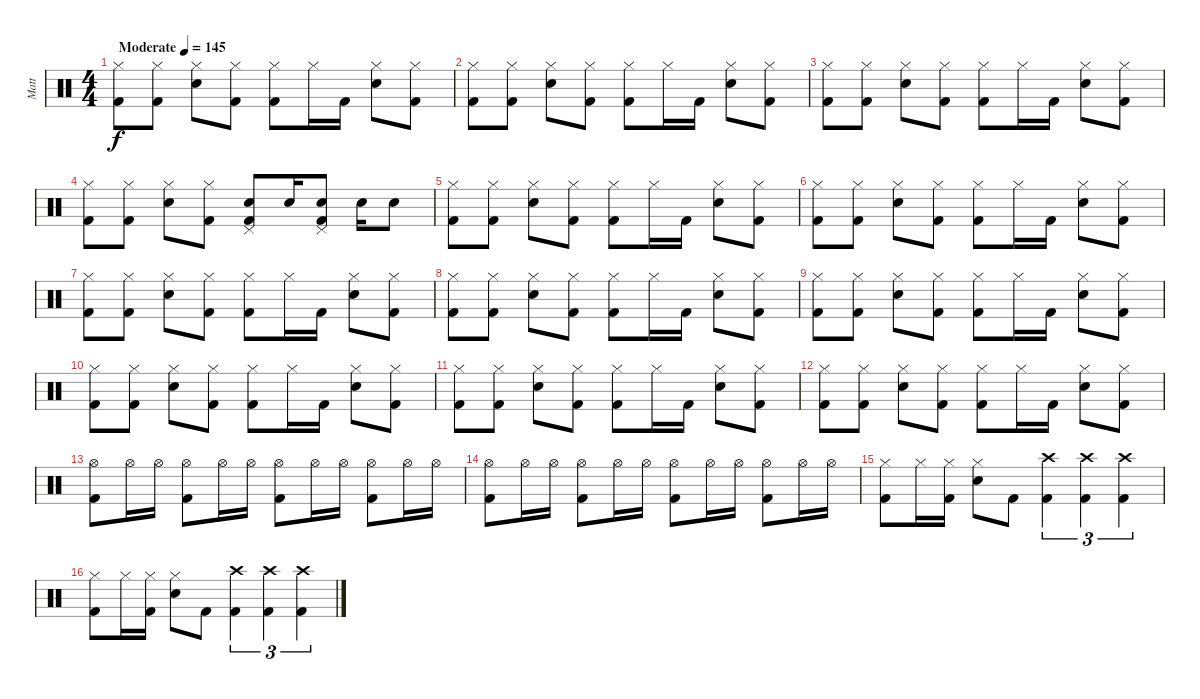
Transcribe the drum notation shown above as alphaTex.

\track ("Matt" "Matt") {instrument percussion}
\staff {score}
\articulation defaults
\ts (4 4)
\tempo (145 "Moderate")
\clef neutral
\ks c
("Hi-Hat (closed)" "Kick (hit) 2").8{dy f} ("Hi-Hat (closed)" "Kick (hit) 2").8 ("Hi-Hat (closed)" "Snare (hit) 2").8 ("Hi-Hat (closed)" "Kick (hit) 2").8 ("Hi-Hat (closed)" "Kick (hit) 2").8 "Hi-Hat (closed)".16 "Kick (hit) 2".16 ("Hi-Hat (closed)" "Snare (hit) 2").8 ("Hi-Hat (closed)" "Kick (hit) 2").8 |
("Hi-Hat (closed)" "Kick (hit) 2").8 ("Hi-Hat (closed)" "Kick (hit) 2").8 ("Hi-Hat (closed)" "Snare (hit) 2").8 ("Hi-Hat (closed)" "Kick (hit) 2").8 ("Hi-Hat (closed)" "Kick (hit) 2").8 "Hi-Hat (closed)".16 "Kick (hit) 2".16 ("Hi-Hat (closed)" "Snare (hit) 2").8 ("Hi-Hat (closed)" "Kick (hit) 2").8 |
("Hi-Hat (closed)" "Kick (hit) 2").8 ("Hi-Hat (closed)" "Kick (hit) 2").8 ("Hi-Hat (closed)" "Snare (hit) 2").8 ("Hi-Hat (closed)" "Kick (hit) 2").8 ("Hi-Hat (closed)" "Kick (hit) 2").8 "Hi-Hat (closed)".16 "Kick (hit) 2".16 ("Hi-Hat (closed)" "Snare (hit) 2").8 ("Hi-Hat (closed)" "Kick (hit) 2").8 |
("Hi-Hat (closed)" "Kick (hit) 2").8 ("Hi-Hat (closed)" "Kick (hit) 2").8 ("Hi-Hat (closed)" "Snare (hit) 2").8 ("Hi-Hat (closed)" "Kick (hit) 2").8 ("Pedal Hi-Hat (hit)" "Snare (hit) 2" "Kick (hit) 2").8 "Snare (hit) 2".16 ("Pedal Hi-Hat (hit)" "Snare (hit) 2" "Kick (hit) 2").8 "Snare (hit) 2".16 "Snare (hit) 2".8 |
("Hi-Hat (closed)" "Kick (hit) 2").8 ("Hi-Hat (closed)" "Kick (hit) 2").8 ("Hi-Hat (closed)" "Snare (hit) 2").8 ("Hi-Hat (closed)" "Kick (hit) 2").8 ("Hi-Hat (closed)" "Kick (hit) 2").8 "Hi-Hat (closed)".16 "Kick (hit) 2".16 ("Hi-Hat (closed)" "Snare (hit) 2").8 ("Hi-Hat (closed)" "Kick (hit) 2").8 |
("Hi-Hat (closed)" "Kick (hit) 2").8 ("Hi-Hat (closed)" "Kick (hit) 2").8 ("Hi-Hat (closed)" "Snare (hit) 2").8 ("Hi-Hat (closed)" "Kick (hit) 2").8 ("Hi-Hat (closed)" "Kick (hit) 2").8 "Hi-Hat (closed)".16 "Kick (hit) 2".16 ("Hi-Hat (closed)" "Snare (hit) 2").8 ("Hi-Hat (closed)" "Kick (hit) 2").8 |
("Hi-Hat (closed)" "Kick (hit) 2").8 ("Hi-Hat (closed)" "Kick (hit) 2").8 ("Hi-Hat (closed)" "Snare (hit) 2").8 ("Hi-Hat (closed)" "Kick (hit) 2").8 ("Hi-Hat (closed)" "Kick (hit) 2").8 "Hi-Hat (closed)".16 "Kick (hit) 2".16 ("Hi-Hat (closed)" "Snare (hit) 2").8 ("Hi-Hat (closed)" "Kick (hit) 2").8 |
("Hi-Hat (closed)" "Kick (hit) 2").8 ("Hi-Hat (closed)" "Kick (hit) 2").8 ("Hi-Hat (closed)" "Snare (hit) 2").8 ("Hi-Hat (closed)" "Kick (hit) 2").8 ("Hi-Hat (closed)" "Kick (hit) 2").8 "Hi-Hat (closed)".16 "Kick (hit) 2".16 ("Hi-Hat (closed)" "Snare (hit) 2").8 ("Hi-Hat (closed)" "Kick (hit) 2").8 |
("Hi-Hat (closed)" "Kick (hit) 2").8 ("Hi-Hat (closed)" "Kick (hit) 2").8 ("Hi-Hat (closed)" "Snare (hit) 2").8 ("Hi-Hat (closed)" "Kick (hit) 2").8 ("Hi-Hat (closed)" "Kick (hit) 2").8 "Hi-Hat (closed)".16 "Kick (hit) 2".16 ("Hi-Hat (closed)" "Snare (hit) 2").8 ("Hi-Hat (closed)" "Kick (hit) 2").8 |
("Hi-Hat (closed)" "Kick (hit) 2").8 ("Hi-Hat (closed)" "Kick (hit) 2").8 ("Hi-Hat (closed)" "Snare (hit) 2").8 ("Hi-Hat (closed)" "Kick (hit) 2").8 ("Hi-Hat (closed)" "Kick (hit) 2").8 "Hi-Hat (closed)".16 "Kick (hit) 2".16 ("Hi-Hat (closed)" "Snare (hit) 2").8 ("Hi-Hat (closed)" "Kick (hit) 2").8 |
("Hi-Hat (closed)" "Kick (hit) 2").8 ("Hi-Hat (closed)" "Kick (hit) 2").8 ("Hi-Hat (closed)" "Snare (hit) 2").8 ("Hi-Hat (closed)" "Kick (hit) 2").8 ("Hi-Hat (closed)" "Kick (hit) 2").8 "Hi-Hat (closed)".16 "Kick (hit) 2".16 ("Hi-Hat (closed)" "Snare (hit) 2").8 ("Hi-Hat (closed)" "Kick (hit) 2").8 |
("Hi-Hat (closed)" "Kick (hit) 2").8 ("Hi-Hat (closed)" "Kick (hit) 2").8 ("Hi-Hat (closed)" "Snare (hit) 2").8 ("Hi-Hat (closed)" "Kick (hit) 2").8 ("Hi-Hat (closed)" "Kick (hit) 2").8 "Hi-Hat (closed)".16 "Kick (hit) 2".16 ("Hi-Hat (closed)" "Snare (hit) 2").8 ("Hi-Hat (closed)" "Kick (hit) 2").8 |
("Hi-Hat (open)" "Kick (hit) 2").8 "Hi-Hat (open)".16 "Hi-Hat (open)".16 ("Hi-Hat (open)" "Kick (hit) 2").8 "Hi-Hat (open)".16 "Hi-Hat (open)".16 ("Hi-Hat (open)" "Kick (hit) 2").8 "Hi-Hat (open)".16 "Hi-Hat (open)".16 ("Hi-Hat (open)" "Kick (hit) 2").8 "Hi-Hat (open)".16 "Hi-Hat (open)".16 |
("Hi-Hat (open)" "Kick (hit) 2").8 "Hi-Hat (open)".16 "Hi-Hat (open)".16 ("Hi-Hat (open)" "Kick (hit) 2").8 "Hi-Hat (open)".16 "Hi-Hat (open)".16 ("Hi-Hat (open)" "Kick (hit) 2").8 "Hi-Hat (open)".16 "Hi-Hat (open)".16 ("Hi-Hat (open)" "Kick (hit) 2").8 "Hi-Hat (open)".16 "Hi-Hat (open)".16 |
("Hi-Hat (closed)" "Kick (hit) 2").8 "Hi-Hat (closed)".16 ("Hi-Hat (closed)" "Kick (hit) 2").16 ("Hi-Hat (closed)" "Snare (hit) 2").8 "Kick (hit) 2".8 ("Crash high (hit)" "Kick (hit) 2").4{tu (3 2)} ("Crash high (hit)" "Kick (hit) 2").4{tu (3 2)} ("Crash high (hit)" "Kick (hit) 2").4{tu (3 2)} |
("Hi-Hat (closed)" "Kick (hit) 2").8 "Hi-Hat (closed)".16 ("Hi-Hat (closed)" "Kick (hit) 2").16 ("Hi-Hat (closed)" "Snare (hit) 2").8 "Kick (hit) 2".8 ("Crash high (hit)" "Kick (hit) 2").4{tu (3 2)} ("Crash high (hit)" "Kick (hit) 2").4{tu (3 2)} ("Crash high (hit)" "Kick (hit) 2").4{tu (3 2)}
